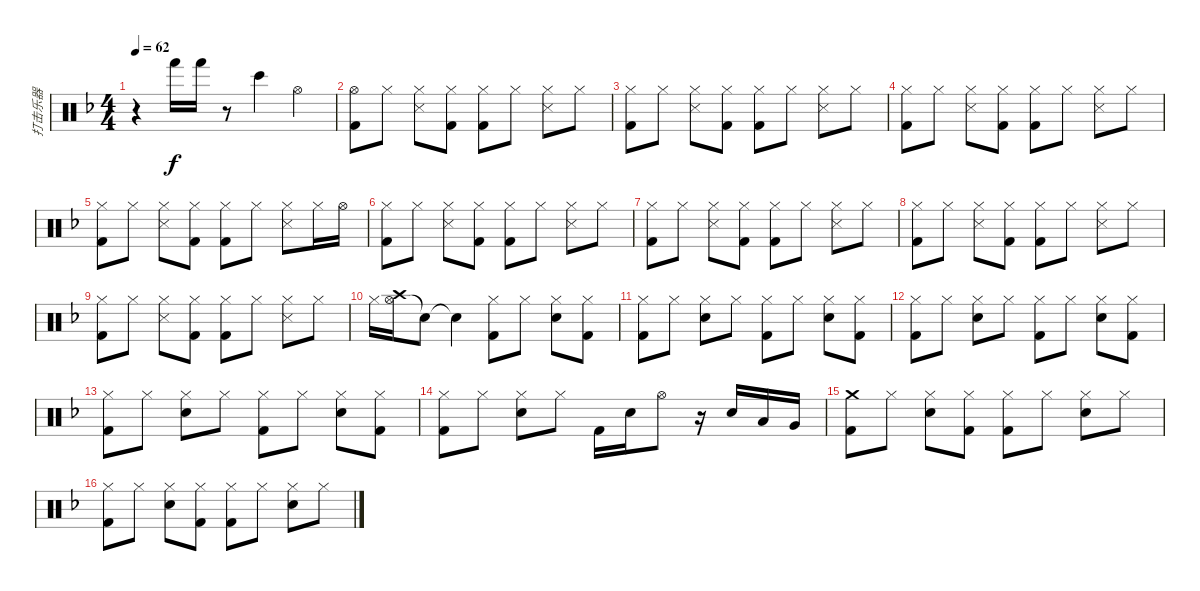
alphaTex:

\track ("打击乐器" "打击乐器") {instrument percussion}
\staff {score}
\articulation defaults
\ts (4 4)
\tempo 62
\clef neutral
\ks f
r.4{dy f} "Hand (hit)".16 "Hand (hit)".16 r.8 "Bongo High (hit)".4 "Hi-Hat (open)".4 |
("Hi-Hat (open)" "Kick (hit) 2").8 "Hi-Hat (closed)".8 ("Hi-Hat (closed)" "Snare (side stick) 3").8 ("Hi-Hat (closed)" "Kick (hit) 2").8 ("Hi-Hat (closed)" "Kick (hit) 2").8 "Hi-Hat (closed)".8 ("Hi-Hat (closed)" "Snare (side stick) 3").8 "Hi-Hat (closed)".8 |
("Hi-Hat (closed)" "Kick (hit) 2").8 "Hi-Hat (closed)".8 ("Hi-Hat (closed)" "Snare (side stick) 3").8 ("Hi-Hat (closed)" "Kick (hit) 2").8 ("Hi-Hat (closed)" "Kick (hit) 2").8 "Hi-Hat (closed)".8 ("Hi-Hat (closed)" "Snare (side stick) 3").8 "Hi-Hat (closed)".8 |
("Hi-Hat (closed)" "Kick (hit) 2").8 "Hi-Hat (closed)".8 ("Hi-Hat (closed)" "Snare (side stick) 3").8 ("Hi-Hat (closed)" "Kick (hit) 2").8 ("Hi-Hat (closed)" "Kick (hit) 2").8 "Hi-Hat (closed)".8 ("Hi-Hat (closed)" "Snare (side stick) 3").8 "Hi-Hat (closed)".8 |
("Hi-Hat (closed)" "Kick (hit) 2").8 "Hi-Hat (closed)".8 ("Hi-Hat (closed)" "Snare (side stick) 3").8 ("Hi-Hat (closed)" "Kick (hit) 2").8 ("Hi-Hat (closed)" "Kick (hit) 2").8 "Hi-Hat (closed)".8 ("Hi-Hat (closed)" "Snare (side stick) 3").8 "Hi-Hat (closed)".16 "Hi-Hat (open)".16 |
("Hi-Hat (closed)" "Kick (hit) 2").8 "Hi-Hat (closed)".8 ("Hi-Hat (closed)" "Snare (side stick) 3").8 ("Hi-Hat (closed)" "Kick (hit) 2").8 ("Hi-Hat (closed)" "Kick (hit) 2").8 "Hi-Hat (closed)".8 ("Hi-Hat (closed)" "Snare (side stick) 3").8 "Hi-Hat (closed)".8 |
("Hi-Hat (closed)" "Kick (hit) 2").8 "Hi-Hat (closed)".8 ("Hi-Hat (closed)" "Snare (side stick) 3").8 ("Hi-Hat (closed)" "Kick (hit) 2").8 ("Hi-Hat (closed)" "Kick (hit) 2").8 "Hi-Hat (closed)".8 ("Hi-Hat (closed)" "Snare (side stick) 3").8 "Hi-Hat (closed)".8 |
("Hi-Hat (closed)" "Kick (hit) 2").8 "Hi-Hat (closed)".8 ("Hi-Hat (closed)" "Snare (side stick) 3").8 ("Hi-Hat (closed)" "Kick (hit) 2").8 ("Hi-Hat (closed)" "Kick (hit) 2").8 "Hi-Hat (closed)".8 ("Hi-Hat (closed)" "Snare (side stick) 3").8 "Hi-Hat (closed)".8 |
("Hi-Hat (closed)" "Kick (hit) 2").8 "Hi-Hat (closed)".8 ("Hi-Hat (closed)" "Snare (side stick) 3").8 ("Hi-Hat (closed)" "Kick (hit) 2").8 ("Hi-Hat (closed)" "Kick (hit) 2").8 "Hi-Hat (closed)".8 ("Hi-Hat (closed)" "Snare (side stick) 3").8 "Hi-Hat (closed)".8 |
"Hi-Hat (closed)".16 ("Hi-Hat (open)" "Crash high (hit)").16 "Snare (hit)"{t}.8 "Snare (hit)"{t}.4 ("Hi-Hat (closed)" "Kick (hit) 2").8 "Hi-Hat (closed)".8 ("Hi-Hat (closed)" "Snare (hit) 2").8 ("Hi-Hat (closed)" "Kick (hit) 2").8 |
("Hi-Hat (closed)" "Kick (hit) 2").8 "Hi-Hat (closed)".8 ("Hi-Hat (closed)" "Snare (hit) 2").8 "Hi-Hat (closed)".8 ("Hi-Hat (closed)" "Kick (hit) 2").8 "Hi-Hat (closed)".8 ("Hi-Hat (closed)" "Snare (hit) 2").8 ("Hi-Hat (closed)" "Kick (hit) 2").8 |
("Hi-Hat (closed)" "Kick (hit) 2").8 "Hi-Hat (closed)".8 ("Hi-Hat (closed)" "Snare (hit) 2").8 "Hi-Hat (closed)".8 ("Hi-Hat (closed)" "Kick (hit) 2").8 "Hi-Hat (closed)".8 ("Hi-Hat (closed)" "Snare (hit) 2").8 ("Hi-Hat (closed)" "Kick (hit) 2").8 |
("Hi-Hat (closed)" "Kick (hit) 2").8 "Hi-Hat (closed)".8 ("Hi-Hat (closed)" "Snare (hit) 2").8 "Hi-Hat (closed)".8 ("Hi-Hat (closed)" "Kick (hit) 2").8 "Hi-Hat (closed)".8 ("Hi-Hat (closed)" "Snare (hit) 2").8 ("Hi-Hat (closed)" "Kick (hit) 2").8 |
("Hi-Hat (closed)" "Kick (hit) 2").8 "Hi-Hat (closed)".8 ("Hi-Hat (closed)" "Snare (hit) 2").8 "Hi-Hat (closed)".8 "Kick (hit) 2".16 "Snare (hit) 2".16 "Hi-Hat (open)".8 r.16 "Snare (hit) 2".16 "Low Tom (hit)".16 "Very Low Tom (hit)".16 |
("Crash medium (hit)" "Kick (hit) 2").8 "Hi-Hat (closed)".8 ("Hi-Hat (closed)" "Snare (hit) 2").8 ("Hi-Hat (closed)" "Kick (hit) 2").8 ("Hi-Hat (closed)" "Kick (hit) 2").8 "Hi-Hat (closed)".8 ("Hi-Hat (closed)" "Snare (hit) 2").8 "Hi-Hat (closed)".8 |
("Hi-Hat (closed)" "Kick (hit) 2").8 "Hi-Hat (closed)".8 ("Hi-Hat (closed)" "Snare (hit) 2").8 ("Hi-Hat (closed)" "Kick (hit) 2").8 ("Hi-Hat (closed)" "Kick (hit) 2").8 "Hi-Hat (closed)".8 ("Hi-Hat (closed)" "Snare (hit) 2").8 "Hi-Hat (closed)".8
